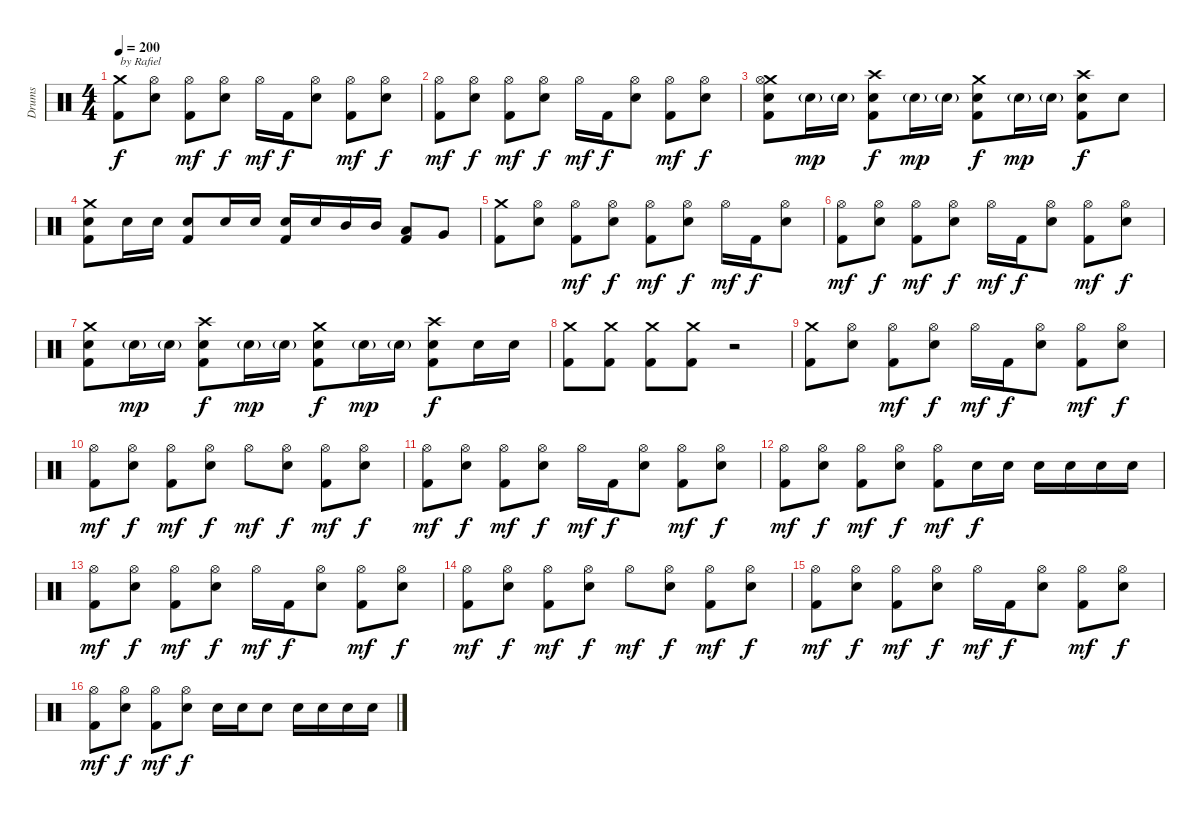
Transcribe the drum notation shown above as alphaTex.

\track ("Drums" "Drums") {instrument percussion}
\staff {score}
\articulation defaults
\ts (4 4)
\tempo 200
\clef neutral
\ks c
("Crash medium (hit)" "Kick (hit) 2").8{txt "by Rafiel" dy f} ("Hi-Hat (open)" "Electric Snare (hit)").8 ("Hi-Hat (open)" "Kick (hit) 2").8{dy mf} ("Hi-Hat (open)" "Electric Snare (hit)").8{dy f} "Hi-Hat (open)".16{dy mf} "Kick (hit) 2".16{dy f} ("Hi-Hat (open)" "Electric Snare (hit)").8 ("Hi-Hat (open)" "Kick (hit) 2").8{dy mf} ("Hi-Hat (open)" "Electric Snare (hit)").8{dy f} |
("Hi-Hat (open)" "Kick (hit) 2").8{dy mf} ("Hi-Hat (open)" "Electric Snare (hit)").8{dy f} ("Hi-Hat (open)" "Kick (hit) 2").8{dy mf} ("Hi-Hat (open)" "Electric Snare (hit)").8{dy f} "Hi-Hat (open)".16{dy mf} "Kick (hit) 2".16{dy f} ("Hi-Hat (open)" "Electric Snare (hit)").8 ("Hi-Hat (open)" "Kick (hit) 2").8{dy mf} ("Hi-Hat (open)" "Electric Snare (hit)").8{dy f} |
("Crash medium (hit)" "Hi-Hat (open)" "Electric Snare (hit)" "Kick (hit) 2").8 "Electric Snare (hit)"{g}.16{dy mp} "Electric Snare (hit)"{g}.16 ("Crash high (hit)" "Electric Snare (hit)" "Kick (hit) 2").8{dy f} "Electric Snare (hit)"{g}.16{dy mp} "Electric Snare (hit)"{g}.16 ("Crash medium (hit)" "Electric Snare (hit)" "Kick (hit) 2").8{dy f} "Electric Snare (hit)"{g}.16{dy mp} "Electric Snare (hit)"{g}.16 ("Crash high (hit)" "Electric Snare (hit)" "Kick (hit) 2").8{dy f} "Electric Snare (hit)".8 |
("Crash medium (hit)" "Electric Snare (hit)" "Kick (hit) 2").8 "Electric Snare (hit)".16 "Electric Snare (hit)".16 ("Electric Snare (hit)" "Kick (hit) 2").8 "Electric Snare (hit)".16 "Electric Snare (hit)".16 ("Electric Snare (hit)" "Kick (hit) 2").16 "Electric Snare (hit)".16 "Mid Tom (hit)".16 "Mid Tom (hit)".16 ("Low Tom (hit)" "Kick (hit) 2").8 "Very Low Tom (hit)".8 |
("Crash medium (hit)" "Kick (hit) 2").8 ("Hi-Hat (open)" "Electric Snare (hit)").8 ("Hi-Hat (open)" "Kick (hit) 2").8{dy mf} ("Hi-Hat (open)" "Electric Snare (hit)").8{dy f} ("Hi-Hat (open)" "Kick (hit) 2").8{dy mf} ("Hi-Hat (open)" "Electric Snare (hit)").8{dy f} "Hi-Hat (open)".16{dy mf} "Kick (hit) 2".16{dy f} ("Hi-Hat (open)" "Electric Snare (hit)").8 |
("Hi-Hat (open)" "Kick (hit) 2").8{dy mf} ("Hi-Hat (open)" "Electric Snare (hit)").8{dy f} ("Hi-Hat (open)" "Kick (hit) 2").8{dy mf} ("Hi-Hat (open)" "Electric Snare (hit)").8{dy f} "Hi-Hat (open)".16{dy mf} "Kick (hit) 2".16{dy f} ("Hi-Hat (open)" "Electric Snare (hit)").8 ("Hi-Hat (open)" "Kick (hit) 2").8{dy mf} ("Hi-Hat (open)" "Electric Snare (hit)").8{dy f} |
("Crash medium (hit)" "Electric Snare (hit)" "Kick (hit) 2").8 "Electric Snare (hit)"{g}.16{dy mp} "Electric Snare (hit)"{g}.16 ("Crash high (hit)" "Electric Snare (hit)" "Kick (hit) 2").8{dy f} "Electric Snare (hit)"{g}.16{dy mp} "Electric Snare (hit)"{g}.16 ("Crash medium (hit)" "Electric Snare (hit)" "Kick (hit) 2").8{dy f} "Electric Snare (hit)"{g}.16{dy mp} "Electric Snare (hit)"{g}.16 ("Crash high (hit)" "Electric Snare (hit)" "Kick (hit) 2").8{dy f} "Electric Snare (hit)".16 "Electric Snare (hit)".16 |
("Crash medium (hit)" "Kick (hit) 2").8 ("Crash medium (hit)" "Kick (hit) 2").8 ("Crash medium (hit)" "Kick (hit) 2").8 ("Crash medium (hit)" "Kick (hit) 2").8 r.2 |
("Crash medium (hit)" "Kick (hit) 2").8 ("Hi-Hat (open)" "Electric Snare (hit)").8 ("Hi-Hat (open)" "Kick (hit) 2").8{dy mf} ("Hi-Hat (open)" "Electric Snare (hit)").8{dy f} "Hi-Hat (open)".16{dy mf} "Kick (hit) 2".16{dy f} ("Hi-Hat (open)" "Electric Snare (hit)").8 ("Hi-Hat (open)" "Kick (hit) 2").8{dy mf} ("Hi-Hat (open)" "Electric Snare (hit)").8{dy f} |
("Hi-Hat (open)" "Kick (hit) 2").8{dy mf} ("Hi-Hat (open)" "Electric Snare (hit)").8{dy f} ("Hi-Hat (open)" "Kick (hit) 2").8{dy mf} ("Hi-Hat (open)" "Electric Snare (hit)").8{dy f} "Hi-Hat (open)".8{dy mf} ("Hi-Hat (open)" "Electric Snare (hit)").8{dy f} ("Hi-Hat (open)" "Kick (hit) 2").8{dy mf} ("Hi-Hat (open)" "Electric Snare (hit)").8{dy f} |
("Hi-Hat (open)" "Kick (hit) 2").8{dy mf} ("Hi-Hat (open)" "Electric Snare (hit)").8{dy f} ("Hi-Hat (open)" "Kick (hit) 2").8{dy mf} ("Hi-Hat (open)" "Electric Snare (hit)").8{dy f} "Hi-Hat (open)".16{dy mf} "Kick (hit) 2".16{dy f} ("Hi-Hat (open)" "Electric Snare (hit)").8 ("Hi-Hat (open)" "Kick (hit) 2").8{dy mf} ("Hi-Hat (open)" "Electric Snare (hit)").8{dy f} |
("Hi-Hat (open)" "Kick (hit) 2").8{dy mf} ("Hi-Hat (open)" "Electric Snare (hit)").8{dy f} ("Hi-Hat (open)" "Kick (hit) 2").8{dy mf} ("Hi-Hat (open)" "Electric Snare (hit)").8{dy f} ("Hi-Hat (open)" "Kick (hit) 2").8{dy mf} "Electric Snare (hit)".16{dy f} "Electric Snare (hit)".16 "Electric Snare (hit)".16 "Electric Snare (hit)".16 "Electric Snare (hit)".16 "Electric Snare (hit)".16 |
("Hi-Hat (open)" "Kick (hit) 2").8{dy mf} ("Hi-Hat (open)" "Electric Snare (hit)").8{dy f} ("Hi-Hat (open)" "Kick (hit) 2").8{dy mf} ("Hi-Hat (open)" "Electric Snare (hit)").8{dy f} "Hi-Hat (open)".16{dy mf} "Kick (hit) 2".16{dy f} ("Hi-Hat (open)" "Electric Snare (hit)").8 ("Hi-Hat (open)" "Kick (hit) 2").8{dy mf} ("Hi-Hat (open)" "Electric Snare (hit)").8{dy f} |
("Hi-Hat (open)" "Kick (hit) 2").8{dy mf} ("Hi-Hat (open)" "Electric Snare (hit)").8{dy f} ("Hi-Hat (open)" "Kick (hit) 2").8{dy mf} ("Hi-Hat (open)" "Electric Snare (hit)").8{dy f} "Hi-Hat (open)".8{dy mf} ("Hi-Hat (open)" "Electric Snare (hit)").8{dy f} ("Hi-Hat (open)" "Kick (hit) 2").8{dy mf} ("Hi-Hat (open)" "Electric Snare (hit)").8{dy f} |
("Hi-Hat (open)" "Kick (hit) 2").8{dy mf} ("Hi-Hat (open)" "Electric Snare (hit)").8{dy f} ("Hi-Hat (open)" "Kick (hit) 2").8{dy mf} ("Hi-Hat (open)" "Electric Snare (hit)").8{dy f} "Hi-Hat (open)".16{dy mf} "Kick (hit) 2".16{dy f} ("Hi-Hat (open)" "Electric Snare (hit)").8 ("Hi-Hat (open)" "Kick (hit) 2").8{dy mf} ("Hi-Hat (open)" "Electric Snare (hit)").8{dy f} |
("Hi-Hat (open)" "Kick (hit) 2").8{dy mf} ("Hi-Hat (open)" "Electric Snare (hit)").8{dy f} ("Hi-Hat (open)" "Kick (hit) 2").8{dy mf} ("Hi-Hat (open)" "Electric Snare (hit)").8{dy f} "Electric Snare (hit)".16 "Electric Snare (hit)".16 "Electric Snare (hit)".8 "Electric Snare (hit)".16 "Electric Snare (hit)".16 "Electric Snare (hit)".16 "Electric Snare (hit)".16
